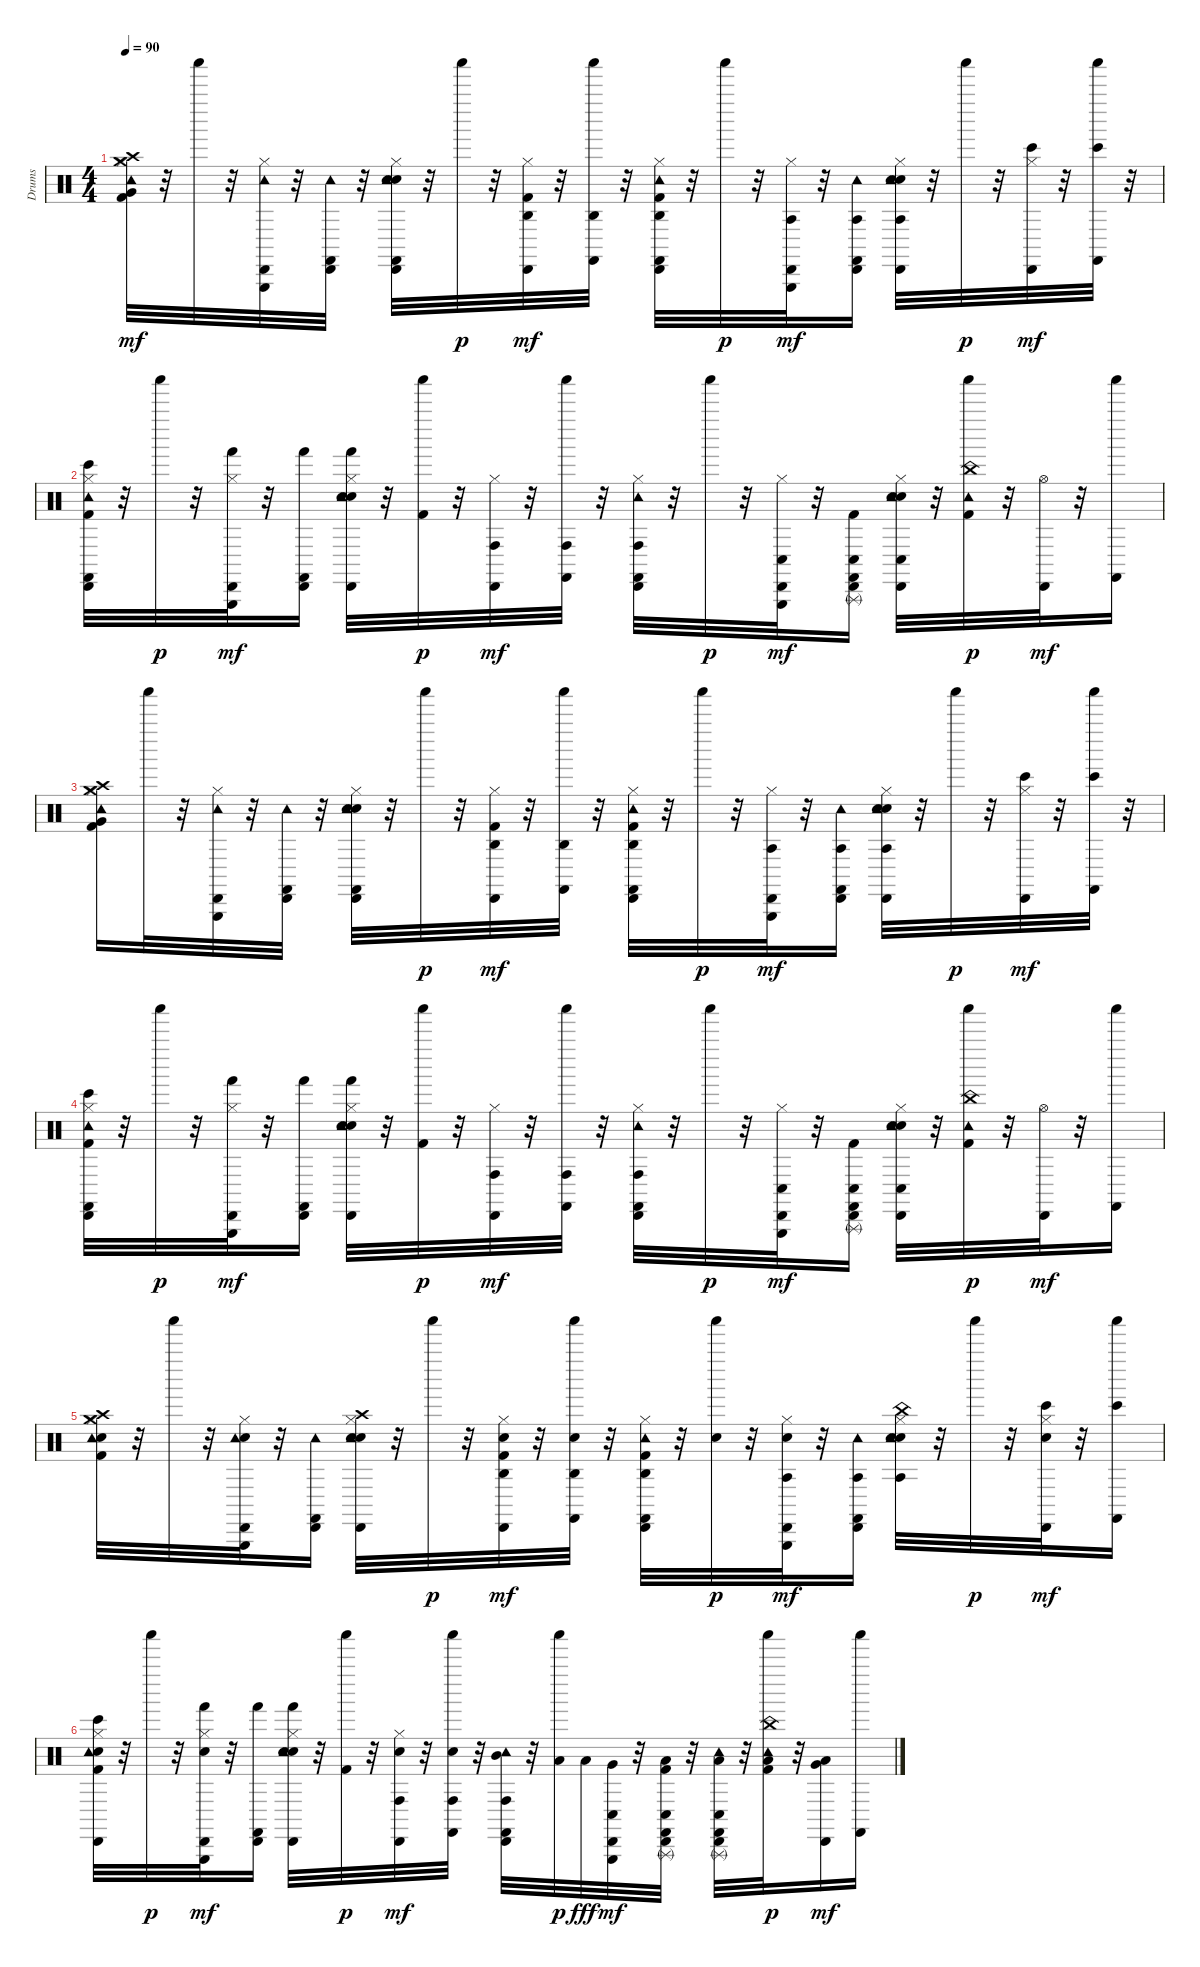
\track ("Drums" "Drums") {instrument percussion}
\staff {score}
\articulation defaults
\ts (4 4)
\tempo 90
\clef neutral
\ks c
("Hi-Hat (closed)" "Kick (hit) 2" "Tambourine (hit)" "Crash high (hit)" "Crash medium (hit)" "Very Low Tom (hit)").32{dy mf} r.32 "Shaker (hit)".32 r.32 ("Hi-Hat (closed)" "Tambourine (hit)" "Cabasa (hit)" "Triangle (hit)").32 r.32 ("Tambourine (hit)" "Cabasa (hit)" "Castanets (hit)").32 r.32 ("Electric Snare (hit)" "Hi-Hat (closed)" "Snare (hit) 2" "Tambourine (hit)" "Cabasa (hit)" "Castanets (hit)").32 r.32 "Shaker (hit)".32{dy p} r.32 ("Hi-Hat (closed)" "Kick (hit) 2" "Agogo high (hit)" "Cabasa (hit)").32{dy mf} r.32 ("Agogo high (hit)" "Shaker (hit)" "Castanets (hit)").32 r.32 ("Hi-Hat (closed)" "Kick (hit) 2" "Agogo high (hit)" "Cabasa (hit)" "Tambourine (hit)" "Castanets (hit)").32 r.32 "Shaker (hit)".32{dy p} r.32 ("Hi-Hat (closed)" "Agogo tow (hit)" "Cabasa (hit)" "Triangle (hit)").32{dy mf} r.32 ("Agogo tow (hit)" "Cabasa (hit)" "Tambourine (hit)" "Castanets (hit)").16 ("Electric Snare (hit)" "Hi-Hat (closed)" "Snare (hit) 2" "Agogo tow (hit)" "Tambourine (hit)" "Cabasa (hit)").32 r.32 "Shaker (hit)".32{dy p} r.32 ("Hi-Hat (closed)" "Bongo High (hit)" "Cabasa (hit)").32{dy mf} r.32 ("Bongo High (hit)" "Shaker (hit)" "Castanets (hit)").32 r.32 |
("Hi-Hat (closed)" "Kick (hit) 2" "Bongo High (hit)" "Cabasa (hit)" "Tambourine (hit)" "Castanets (hit)").32 r.32 "Shaker (hit)".32{dy p} r.32 ("Hi-Hat (closed)" "Hand (hit)" "Cabasa (hit)" "Triangle (hit)").32{dy mf} r.32 ("Hand (hit)" "Cabasa (hit)" "Castanets (hit)").16 ("Electric Snare (hit)" "Hi-Hat (closed)" "Snare (hit) 2" "Hand (hit)" "Cabasa (hit)" "Tambourine (hit)").32 r.32 ("Kick (hit) 2" "Shaker (hit)").32{dy p} r.32 ("Hi-Hat (closed)" "Conga high (hit)" "Cabasa (hit)").32{dy mf} r.32 ("Conga high (hit)" "Shaker (hit)" "Castanets (hit)").32 r.32 ("Hi-Hat (closed)" "Conga high (hit)" "Cabasa (hit)" "Tambourine (hit)" "Castanets (hit)").32 r.32 "Shaker (hit)".32{dy p} r.32 ("Hi-Hat (closed)" "Conga low (hit)" "Cabasa (hit)" "Triangle (hit)").32{dy mf} r.32 ("Kick (hit) 2" "Conga low (hit)" "Cabasa (hit)" "Castanets (hit)" "Triangle (rnute)").16 ("Electric Snare (hit)" "Hi-Hat (closed)" "Snare (hit) 2" "Conga low (hit)" "Cabasa (hit)" "Tambourine (hit)").32 r.32 ("Kick (hit) 2" "China (hit)" "Tambourine (hit)" "Shaker (hit)").32{dy p} r.32 ("Hi-Hat (open)" "Cabasa (hit)").32{dy mf} r.32 ("Shaker (hit)" "Castanets (hit)").16 |
("Hi-Hat (closed)" "Kick (hit) 2" "Tambourine (hit)" "Crash high (hit)" "Crash medium (hit)" "Very Low Tom (hit)").16 "Shaker (hit)".32 r.32 ("Hi-Hat (closed)" "Tambourine (hit)" "Cabasa (hit)" "Triangle (hit)").32 r.32 ("Tambourine (hit)" "Cabasa (hit)" "Castanets (hit)").32 r.32 ("Electric Snare (hit)" "Hi-Hat (closed)" "Snare (hit) 2" "Tambourine (hit)" "Cabasa (hit)" "Castanets (hit)").32 r.32 "Shaker (hit)".32{dy p} r.32 ("Hi-Hat (closed)" "Kick (hit) 2" "Agogo high (hit)" "Cabasa (hit)").32{dy mf} r.32 ("Agogo high (hit)" "Shaker (hit)" "Castanets (hit)").32 r.32 ("Hi-Hat (closed)" "Kick (hit) 2" "Agogo high (hit)" "Cabasa (hit)" "Tambourine (hit)" "Castanets (hit)").32 r.32 "Shaker (hit)".32{dy p} r.32 ("Hi-Hat (closed)" "Agogo tow (hit)" "Cabasa (hit)" "Triangle (hit)").32{dy mf} r.32 ("Agogo tow (hit)" "Cabasa (hit)" "Tambourine (hit)" "Castanets (hit)").16 ("Electric Snare (hit)" "Hi-Hat (closed)" "Snare (hit) 2" "Agogo tow (hit)" "Tambourine (hit)" "Cabasa (hit)").32 r.32 "Shaker (hit)".32{dy p} r.32 ("Hi-Hat (closed)" "Bongo High (hit)" "Cabasa (hit)").32{dy mf} r.32 ("Bongo High (hit)" "Shaker (hit)" "Castanets (hit)").32 r.32 |
("Hi-Hat (closed)" "Kick (hit) 2" "Bongo High (hit)" "Cabasa (hit)" "Tambourine (hit)" "Castanets (hit)").32 r.32 "Shaker (hit)".32{dy p} r.32 ("Hi-Hat (closed)" "Hand (hit)" "Cabasa (hit)" "Triangle (hit)").32{dy mf} r.32 ("Hand (hit)" "Cabasa (hit)" "Castanets (hit)").16 ("Electric Snare (hit)" "Hi-Hat (closed)" "Snare (hit) 2" "Hand (hit)" "Cabasa (hit)" "Tambourine (hit)").32 r.32 ("Kick (hit) 2" "Shaker (hit)").32{dy p} r.32 ("Hi-Hat (closed)" "Conga high (hit)" "Cabasa (hit)").32{dy mf} r.32 ("Conga high (hit)" "Shaker (hit)" "Castanets (hit)").32 r.32 ("Hi-Hat (closed)" "Conga high (hit)" "Cabasa (hit)" "Tambourine (hit)" "Castanets (hit)").32 r.32 "Shaker (hit)".32{dy p} r.32 ("Hi-Hat (closed)" "Conga low (hit)" "Cabasa (hit)" "Triangle (hit)").32{dy mf} r.32 ("Kick (hit) 2" "Conga low (hit)" "Cabasa (hit)" "Castanets (hit)" "Triangle (rnute)").16 ("Electric Snare (hit)" "Hi-Hat (closed)" "Snare (hit) 2" "Conga low (hit)" "Cabasa (hit)" "Tambourine (hit)").32 r.32 ("Kick (hit) 2" "China (hit)" "Tambourine (hit)" "Shaker (hit)").32{dy p} r.32 ("Hi-Hat (open)" "Cabasa (hit)").32{dy mf} r.32 ("Shaker (hit)" "Castanets (hit)").16 |
("Hi-Hat (closed)" "Kick (hit) 2" "Snare (hit) 2" "Tambourine (hit)" "Crash high (hit)" "Crash medium (hit)").32 r.32 "Shaker (hit)".32 r.32 ("Hi-Hat (closed)" "Snare (hit) 2" "Tambourine (hit)" "Cabasa (hit)" "Triangle (hit)").32 r.32 ("Tambourine (hit)" "Cabasa (hit)" "Castanets (hit)").16 ("Electric Snare (hit)" "Hi-Hat (closed)" "Crash high (hit)" "Snare (hit) 2" "Tambourine (hit)" "Cabasa (hit)").32 r.32 "Shaker (hit)".32{dy p} r.32 ("Hi-Hat (closed)" "Kick (hit) 2" "Snare (hit) 2" "Agogo high (hit)" "Cabasa (hit)").32{dy mf} r.32 ("Snare (hit) 2" "Agogo high (hit)" "Shaker (hit)" "Castanets (hit)").32 r.32 ("Hi-Hat (closed)" "Kick (hit) 2" "Agogo high (hit)" "Cabasa (hit)" "Tambourine (hit)" "Castanets (hit)").32 r.32 ("Snare (hit) 2" "Shaker (hit)").32{dy p} r.32 ("Hi-Hat (closed)" "Snare (hit) 2" "Agogo tow (hit)" "Cabasa (hit)" "Triangle (hit)").32{dy mf} r.32 ("Agogo tow (hit)" "Cabasa (hit)" "Tambourine (hit)" "Castanets (hit)").16 ("Electric Snare (hit)" "Hi-Hat (closed)" "China (hit)" "Snare (hit) 2" "Agogo tow (hit)" "Tambourine (hit)").32 r.32 "Shaker (hit)".32{dy p} r.32 ("Hi-Hat (closed)" "Snare (hit) 2" "Bongo High (hit)" "Cabasa (hit)").32{dy mf} r.32 ("Bongo High (hit)" "Shaker (hit)" "Castanets (hit)").16 |
("Hi-Hat (closed)" "Kick (hit) 2" "Snare (hit) 2" "Bongo High (hit)" "Cabasa (hit)" "Tambourine (hit)").32 r.32 "Shaker (hit)".32{dy p} r.32 ("Hi-Hat (closed)" "Snare (hit) 2" "Hand (hit)" "Cabasa (hit)" "Triangle (hit)").32{dy mf} r.32 ("Hand (hit)" "Cabasa (hit)" "Castanets (hit)").16 ("Electric Snare (hit)" "Hi-Hat (closed)" "Snare (hit) 2" "Hand (hit)" "Cabasa (hit)" "Tambourine (hit)").32 r.32 ("Kick (hit) 2" "Shaker (hit)").32{dy p} r.32 ("Hi-Hat (closed)" "Snare (hit) 2" "Conga high (hit)" "Cabasa (hit)").32{dy mf} r.32 ("Snare (hit) 2" "Conga high (hit)" "Shaker (hit)" "Castanets (hit)").32 r.32 ("Mid Tom (hit)" "Conga high (hit)" "Cabasa (hit)" "Tambourine (hit)" "Castanets (hit)").32 r.32 ("Low Tom (hit)" "Shaker (hit)").32{dy p} "Low Tom (hit)".32{dy fff} ("Very Low Tom (hit)" "Conga low (hit)" "Cabasa (hit)" "Triangle (hit)").32{dy mf} r.32 ("Low Floor Tom (hit)" "Kick (hit) 2" "Conga low (hit)" "Cabasa (hit)" "Castanets (hit)" "Triangle (rnute)").32 r.32 ("Low Tom (hit)" "Conga low (hit)" "Cabasa (hit)" "Tambourine (hit)" "Castanets (hit)" "Triangle (rnute)").32 r.32 ("Low Tom (hit)" "Kick (hit) 2" "China (hit)" "Tambourine (hit)" "Shaker (hit)").32{dy p} r.32 ("Very Low Tom (hit)" "Low Floor Tom (hit)" "Cabasa (hit)").16{dy mf} ("Shaker (hit)" "Castanets (hit)").16
